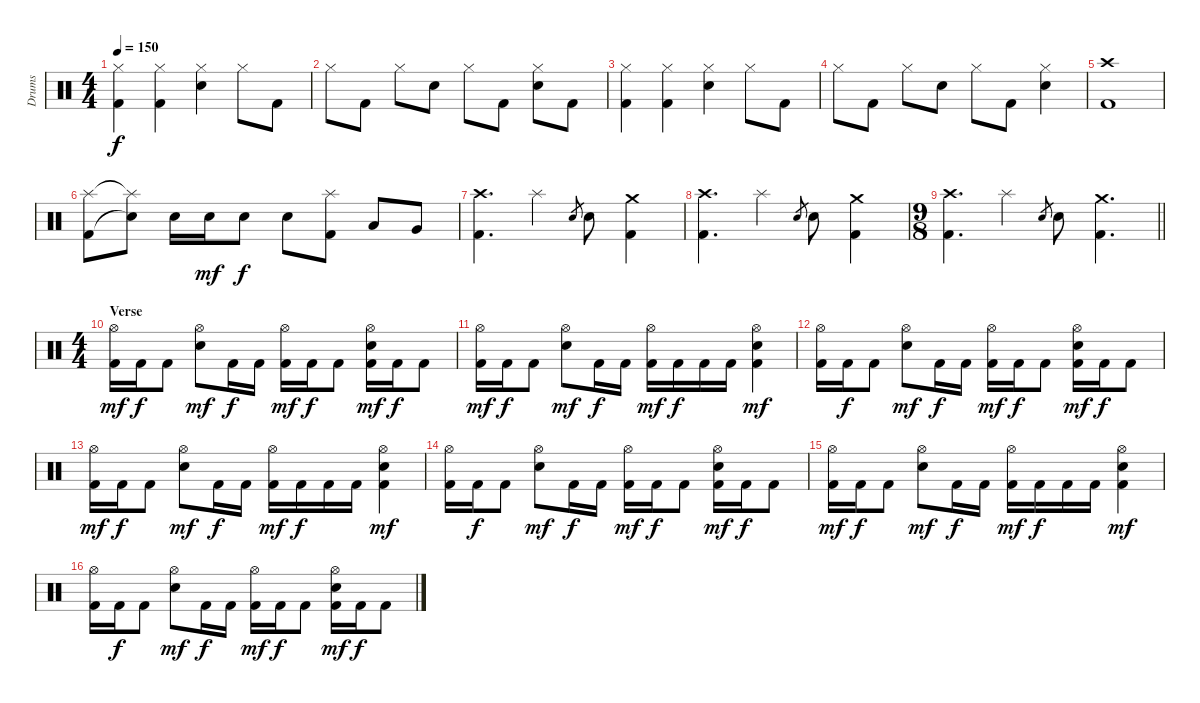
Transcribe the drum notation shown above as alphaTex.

\track ("Drums" "Drums") {instrument percussion}
\staff {score}
\articulation defaults
\ts (4 4)
\tempo 150
\clef neutral
\ks c
("Kick (hit) 2" "Hi-Hat (closed)").4{dy f} ("Kick (hit) 2" "Hi-Hat (closed)").4 ("Hi-Hat (closed)" "Electric Snare (hit)").4 "Hi-Hat (closed)".8 "Kick (hit) 2".8 |
"Hi-Hat (closed)".8 "Kick (hit) 2".8 "Hi-Hat (closed)".8 "Electric Snare (hit)".8 "Hi-Hat (closed)".8 "Kick (hit) 2".8 ("Hi-Hat (closed)" "Electric Snare (hit)").8 "Kick (hit) 2".8 |
("Kick (hit) 2" "Hi-Hat (closed)").4 ("Kick (hit) 2" "Hi-Hat (closed)").4 ("Hi-Hat (closed)" "Electric Snare (hit)").4 "Hi-Hat (closed)".8 "Kick (hit) 2".8 |
"Hi-Hat (closed)".8 "Kick (hit) 2".8 "Hi-Hat (closed)".8 "Electric Snare (hit)".8 "Hi-Hat (closed)".8 "Kick (hit) 2".8 ("Hi-Hat (closed)" "Electric Snare (hit)").4 |
("Kick (hit) 2" "Crash high (hit)").1 |
("Kick (hit) 2" "Splash (hit)").8 ("Snare (hit)"{t} "Splash (hit)"{t}).8 "Electric Snare (hit)".16 "Electric Snare (hit)".16{dy mf} "Electric Snare (hit)".8{dy f} "Electric Snare (hit)".8 ("Kick (hit) 2" "Splash (hit)").8 "Low Tom (hit)".8 "Very Low Tom (hit)".8 |
("Kick (hit) 2" "Crash high (hit)").4{d} "Splash (hit)".4 "Electric Snare (hit)".8{gr} "Electric Snare (hit)".8 ("Kick (hit) 2" "Crash medium (hit)").4 |
("Kick (hit) 2" "Crash high (hit)").4{d} "Splash (hit)".4 "Electric Snare (hit)".8{gr} "Electric Snare (hit)".8 ("Kick (hit) 2" "Crash medium (hit)").4 |
\ts (9 8)
\barLineRight lightlight
("Kick (hit) 2" "Crash high (hit)").4{d} "Splash (hit)".4 "Electric Snare (hit)".8{gr} "Electric Snare (hit)".8 ("Kick (hit) 2" "Crash medium (hit)").4{d} |
\ts (4 4)
\section ("" "Verse")
("Kick (hit) 2" "Hi-Hat (open)").16{dy mf} "Kick (hit) 2".16{dy f} "Kick (hit) 2".8 ("Hi-Hat (open)" "Electric Snare (hit)").8{dy mf} "Kick (hit) 2".16{dy f} "Kick (hit) 2".16 ("Kick (hit) 2" "Hi-Hat (open)").16{dy mf} "Kick (hit) 2".16{dy f} "Kick (hit) 2".8 ("Kick (hit) 2" "Hi-Hat (open)" "Electric Snare (hit)").16{dy mf} "Kick (hit) 2".16{dy f} "Kick (hit) 2".8 |
("Kick (hit) 2" "Hi-Hat (open)").16{dy mf} "Kick (hit) 2".16{dy f} "Kick (hit) 2".8 ("Hi-Hat (open)" "Electric Snare (hit)").8{dy mf} "Kick (hit) 2".16{dy f} "Kick (hit) 2".16 ("Kick (hit) 2" "Hi-Hat (open)").16{dy mf} "Kick (hit) 2".16{dy f} "Kick (hit) 2".16 "Kick (hit) 2".16 ("Kick (hit) 2" "Hi-Hat (open)" "Electric Snare (hit)").4{dy mf} |
("Kick (hit) 2" "Hi-Hat (open)").16 "Kick (hit) 2".16{dy f} "Kick (hit) 2".8 ("Hi-Hat (open)" "Electric Snare (hit)").8{dy mf} "Kick (hit) 2".16{dy f} "Kick (hit) 2".16 ("Kick (hit) 2" "Hi-Hat (open)").16{dy mf} "Kick (hit) 2".16{dy f} "Kick (hit) 2".8 ("Kick (hit) 2" "Hi-Hat (open)" "Electric Snare (hit)").16{dy mf} "Kick (hit) 2".16{dy f} "Kick (hit) 2".8 |
("Kick (hit) 2" "Hi-Hat (open)").16{dy mf} "Kick (hit) 2".16{dy f} "Kick (hit) 2".8 ("Hi-Hat (open)" "Electric Snare (hit)").8{dy mf} "Kick (hit) 2".16{dy f} "Kick (hit) 2".16 ("Kick (hit) 2" "Hi-Hat (open)").16{dy mf} "Kick (hit) 2".16{dy f} "Kick (hit) 2".16 "Kick (hit) 2".16 ("Kick (hit) 2" "Hi-Hat (open)" "Electric Snare (hit)").4{dy mf} |
("Kick (hit) 2" "Hi-Hat (open)").16 "Kick (hit) 2".16{dy f} "Kick (hit) 2".8 ("Hi-Hat (open)" "Electric Snare (hit)").8{dy mf} "Kick (hit) 2".16{dy f} "Kick (hit) 2".16 ("Kick (hit) 2" "Hi-Hat (open)").16{dy mf} "Kick (hit) 2".16{dy f} "Kick (hit) 2".8 ("Kick (hit) 2" "Hi-Hat (open)" "Electric Snare (hit)").16{dy mf} "Kick (hit) 2".16{dy f} "Kick (hit) 2".8 |
("Kick (hit) 2" "Hi-Hat (open)").16{dy mf} "Kick (hit) 2".16{dy f} "Kick (hit) 2".8 ("Hi-Hat (open)" "Electric Snare (hit)").8{dy mf} "Kick (hit) 2".16{dy f} "Kick (hit) 2".16 ("Kick (hit) 2" "Hi-Hat (open)").16{dy mf} "Kick (hit) 2".16{dy f} "Kick (hit) 2".16 "Kick (hit) 2".16 ("Kick (hit) 2" "Hi-Hat (open)" "Electric Snare (hit)").4{dy mf} |
("Kick (hit) 2" "Hi-Hat (open)").16 "Kick (hit) 2".16{dy f} "Kick (hit) 2".8 ("Hi-Hat (open)" "Electric Snare (hit)").8{dy mf} "Kick (hit) 2".16{dy f} "Kick (hit) 2".16 ("Kick (hit) 2" "Hi-Hat (open)").16{dy mf} "Kick (hit) 2".16{dy f} "Kick (hit) 2".8 ("Kick (hit) 2" "Hi-Hat (open)" "Electric Snare (hit)").16{dy mf} "Kick (hit) 2".16{dy f} "Kick (hit) 2".8
